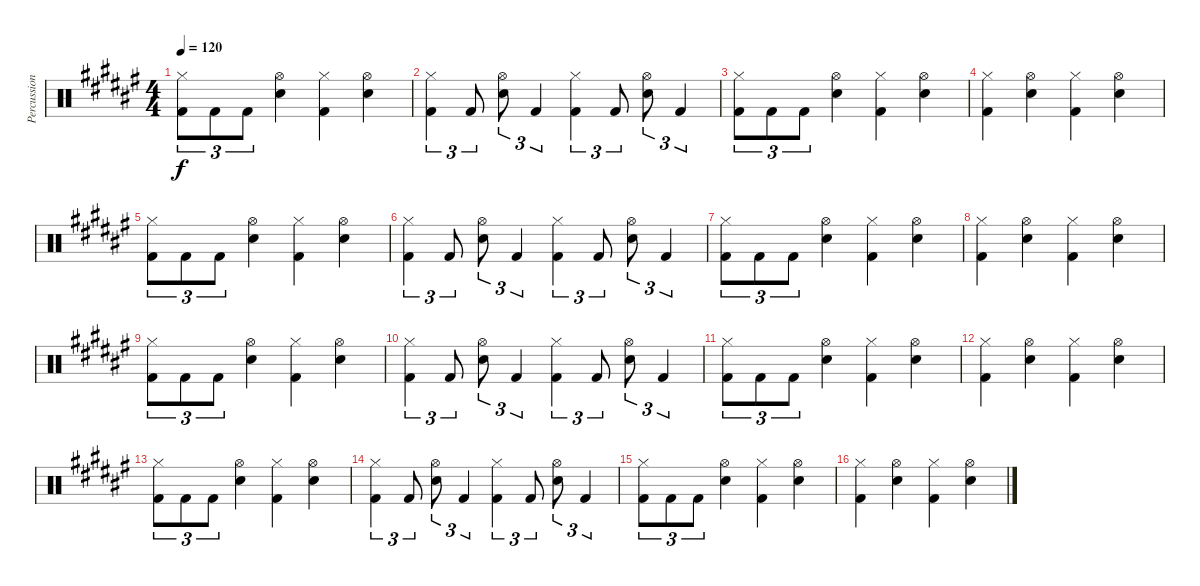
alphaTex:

\track ("Percussion" "Percussion") {instrument percussion}
\staff {score}
\articulation defaults
\ts (4 4)
\tempo 120
\clef neutral
\ks d#minor
("Hi-Hat (closed)" "Kick (hit) 2").8{tu (3 2) dy f} "Kick (hit) 2".8{tu (3 2)} "Kick (hit) 2".8{tu (3 2)} ("Hi-Hat (open)" "Electric Snare (hit)").4 ("Hi-Hat (closed)" "Kick (hit) 2").4 ("Hi-Hat (open)" "Electric Snare (hit)").4 |
("Hi-Hat (closed)" "Kick (hit) 2").4{tu (3 2)} "Kick (hit) 2".8{tu (3 2)} ("Hi-Hat (open)" "Electric Snare (hit)").8{tu (3 2)} "Kick (hit) 2".4{tu (3 2)} ("Hi-Hat (closed)" "Kick (hit) 2").4{tu (3 2)} "Kick (hit) 2".8{tu (3 2)} ("Hi-Hat (open)" "Electric Snare (hit)").8{tu (3 2)} "Kick (hit) 2".4{tu (3 2)} |
("Hi-Hat (closed)" "Kick (hit) 2").8{tu (3 2)} "Kick (hit) 2".8{tu (3 2)} "Kick (hit) 2".8{tu (3 2)} ("Hi-Hat (open)" "Electric Snare (hit)").4 ("Hi-Hat (closed)" "Kick (hit) 2").4 ("Hi-Hat (open)" "Electric Snare (hit)").4 |
("Hi-Hat (closed)" "Kick (hit) 2").4 ("Hi-Hat (open)" "Electric Snare (hit)").4 ("Hi-Hat (closed)" "Kick (hit) 2").4 ("Hi-Hat (open)" "Electric Snare (hit)").4 |
("Hi-Hat (closed)" "Kick (hit) 2").8{tu (3 2)} "Kick (hit) 2".8{tu (3 2)} "Kick (hit) 2".8{tu (3 2)} ("Hi-Hat (open)" "Electric Snare (hit)").4 ("Hi-Hat (closed)" "Kick (hit) 2").4 ("Hi-Hat (open)" "Electric Snare (hit)").4 |
("Hi-Hat (closed)" "Kick (hit) 2").4{tu (3 2)} "Kick (hit) 2".8{tu (3 2)} ("Hi-Hat (open)" "Electric Snare (hit)").8{tu (3 2)} "Kick (hit) 2".4{tu (3 2)} ("Hi-Hat (closed)" "Kick (hit) 2").4{tu (3 2)} "Kick (hit) 2".8{tu (3 2)} ("Hi-Hat (open)" "Electric Snare (hit)").8{tu (3 2)} "Kick (hit) 2".4{tu (3 2)} |
("Hi-Hat (closed)" "Kick (hit) 2").8{tu (3 2)} "Kick (hit) 2".8{tu (3 2)} "Kick (hit) 2".8{tu (3 2)} ("Hi-Hat (open)" "Electric Snare (hit)").4 ("Hi-Hat (closed)" "Kick (hit) 2").4 ("Hi-Hat (open)" "Electric Snare (hit)").4 |
("Hi-Hat (closed)" "Kick (hit) 2").4 ("Hi-Hat (open)" "Electric Snare (hit)").4 ("Hi-Hat (closed)" "Kick (hit) 2").4 ("Hi-Hat (open)" "Electric Snare (hit)").4 |
("Hi-Hat (closed)" "Kick (hit) 2").8{tu (3 2)} "Kick (hit) 2".8{tu (3 2)} "Kick (hit) 2".8{tu (3 2)} ("Hi-Hat (open)" "Electric Snare (hit)").4 ("Hi-Hat (closed)" "Kick (hit) 2").4 ("Hi-Hat (open)" "Electric Snare (hit)").4 |
("Hi-Hat (closed)" "Kick (hit) 2").4{tu (3 2)} "Kick (hit) 2".8{tu (3 2)} ("Hi-Hat (open)" "Electric Snare (hit)").8{tu (3 2)} "Kick (hit) 2".4{tu (3 2)} ("Hi-Hat (closed)" "Kick (hit) 2").4{tu (3 2)} "Kick (hit) 2".8{tu (3 2)} ("Hi-Hat (open)" "Electric Snare (hit)").8{tu (3 2)} "Kick (hit) 2".4{tu (3 2)} |
("Hi-Hat (closed)" "Kick (hit) 2").8{tu (3 2)} "Kick (hit) 2".8{tu (3 2)} "Kick (hit) 2".8{tu (3 2)} ("Hi-Hat (open)" "Electric Snare (hit)").4 ("Hi-Hat (closed)" "Kick (hit) 2").4 ("Hi-Hat (open)" "Electric Snare (hit)").4 |
("Hi-Hat (closed)" "Kick (hit) 2").4 ("Hi-Hat (open)" "Electric Snare (hit)").4 ("Hi-Hat (closed)" "Kick (hit) 2").4 ("Hi-Hat (open)" "Electric Snare (hit)").4 |
("Hi-Hat (closed)" "Kick (hit) 2").8{tu (3 2)} "Kick (hit) 2".8{tu (3 2)} "Kick (hit) 2".8{tu (3 2)} ("Hi-Hat (open)" "Electric Snare (hit)").4 ("Hi-Hat (closed)" "Kick (hit) 2").4 ("Hi-Hat (open)" "Electric Snare (hit)").4 |
("Hi-Hat (closed)" "Kick (hit) 2").4{tu (3 2)} "Kick (hit) 2".8{tu (3 2)} ("Hi-Hat (open)" "Electric Snare (hit)").8{tu (3 2)} "Kick (hit) 2".4{tu (3 2)} ("Hi-Hat (closed)" "Kick (hit) 2").4{tu (3 2)} "Kick (hit) 2".8{tu (3 2)} ("Hi-Hat (open)" "Electric Snare (hit)").8{tu (3 2)} "Kick (hit) 2".4{tu (3 2)} |
("Hi-Hat (closed)" "Kick (hit) 2").8{tu (3 2)} "Kick (hit) 2".8{tu (3 2)} "Kick (hit) 2".8{tu (3 2)} ("Hi-Hat (open)" "Electric Snare (hit)").4 ("Hi-Hat (closed)" "Kick (hit) 2").4 ("Hi-Hat (open)" "Electric Snare (hit)").4 |
("Hi-Hat (closed)" "Kick (hit) 2").4 ("Hi-Hat (open)" "Electric Snare (hit)").4 ("Hi-Hat (closed)" "Kick (hit) 2").4 ("Hi-Hat (open)" "Electric Snare (hit)").4
